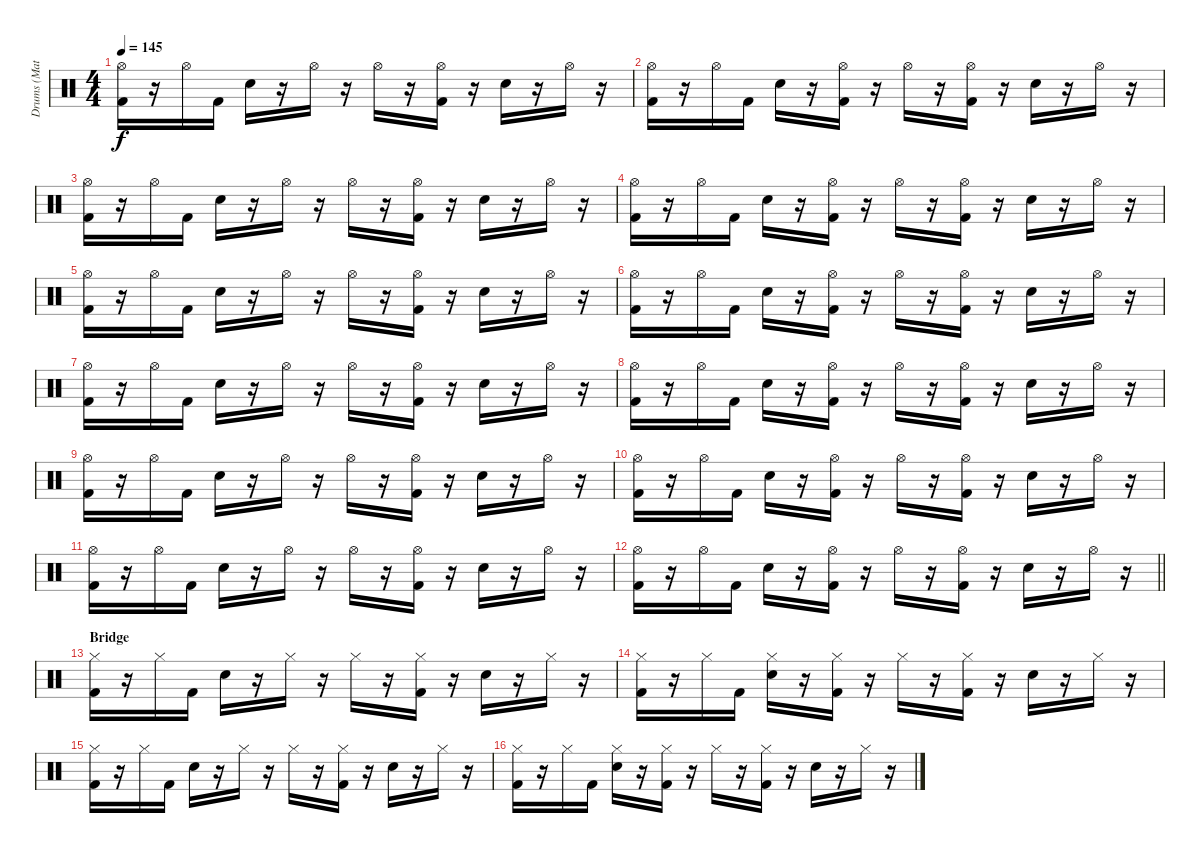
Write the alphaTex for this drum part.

\track ("Drums (Matt)" "Drums (Mat") {instrument percussion}
\staff {score}
\articulation defaults
\ts (4 4)
\tempo 145
\clef neutral
\ks c
("Hi-Hat (open)" "Kick (hit) 2").16{dy f} r.16 "Hi-Hat (open)".16 "Kick (hit) 2".16 "Electric Snare (hit)".16 r.16 "Hi-Hat (open)".16 r.16 "Hi-Hat (open)".16 r.16 ("Hi-Hat (open)" "Kick (hit) 2").16 r.16 "Electric Snare (hit)".16 r.16 "Hi-Hat (open)".16 r.16 |
("Hi-Hat (open)" "Kick (hit) 2").16 r.16 "Hi-Hat (open)".16 "Kick (hit) 2".16 "Electric Snare (hit)".16 r.16 ("Hi-Hat (open)" "Kick (hit) 2").16 r.16 "Hi-Hat (open)".16 r.16 ("Hi-Hat (open)" "Kick (hit) 2").16 r.16 "Electric Snare (hit)".16 r.16 "Hi-Hat (open)".16 r.16 |
("Hi-Hat (open)" "Kick (hit) 2").16 r.16 "Hi-Hat (open)".16 "Kick (hit) 2".16 "Electric Snare (hit)".16 r.16 "Hi-Hat (open)".16 r.16 "Hi-Hat (open)".16 r.16 ("Hi-Hat (open)" "Kick (hit) 2").16 r.16 "Electric Snare (hit)".16 r.16 "Hi-Hat (open)".16 r.16 |
("Hi-Hat (open)" "Kick (hit) 2").16 r.16 "Hi-Hat (open)".16 "Kick (hit) 2".16 "Electric Snare (hit)".16 r.16 ("Hi-Hat (open)" "Kick (hit) 2").16 r.16 "Hi-Hat (open)".16 r.16 ("Hi-Hat (open)" "Kick (hit) 2").16 r.16 "Electric Snare (hit)".16 r.16 "Hi-Hat (open)".16 r.16 |
("Hi-Hat (open)" "Kick (hit) 2").16 r.16 "Hi-Hat (open)".16 "Kick (hit) 2".16 "Electric Snare (hit)".16 r.16 "Hi-Hat (open)".16 r.16 "Hi-Hat (open)".16 r.16 ("Hi-Hat (open)" "Kick (hit) 2").16 r.16 "Electric Snare (hit)".16 r.16 "Hi-Hat (open)".16 r.16 |
("Hi-Hat (open)" "Kick (hit) 2").16 r.16 "Hi-Hat (open)".16 "Kick (hit) 2".16 "Electric Snare (hit)".16 r.16 ("Hi-Hat (open)" "Kick (hit) 2").16 r.16 "Hi-Hat (open)".16 r.16 ("Hi-Hat (open)" "Kick (hit) 2").16 r.16 "Electric Snare (hit)".16 r.16 "Hi-Hat (open)".16 r.16 |
("Hi-Hat (open)" "Kick (hit) 2").16 r.16 "Hi-Hat (open)".16 "Kick (hit) 2".16 "Electric Snare (hit)".16 r.16 "Hi-Hat (open)".16 r.16 "Hi-Hat (open)".16 r.16 ("Hi-Hat (open)" "Kick (hit) 2").16 r.16 "Electric Snare (hit)".16 r.16 "Hi-Hat (open)".16 r.16 |
("Hi-Hat (open)" "Kick (hit) 2").16 r.16 "Hi-Hat (open)".16 "Kick (hit) 2".16 "Electric Snare (hit)".16 r.16 ("Hi-Hat (open)" "Kick (hit) 2").16 r.16 "Hi-Hat (open)".16 r.16 ("Hi-Hat (open)" "Kick (hit) 2").16 r.16 "Electric Snare (hit)".16 r.16 "Hi-Hat (open)".16 r.16 |
("Hi-Hat (open)" "Kick (hit) 2").16 r.16 "Hi-Hat (open)".16 "Kick (hit) 2".16 "Electric Snare (hit)".16 r.16 "Hi-Hat (open)".16 r.16 "Hi-Hat (open)".16 r.16 ("Hi-Hat (open)" "Kick (hit) 2").16 r.16 "Electric Snare (hit)".16 r.16 "Hi-Hat (open)".16 r.16 |
("Hi-Hat (open)" "Kick (hit) 2").16 r.16 "Hi-Hat (open)".16 "Kick (hit) 2".16 "Electric Snare (hit)".16 r.16 ("Hi-Hat (open)" "Kick (hit) 2").16 r.16 "Hi-Hat (open)".16 r.16 ("Hi-Hat (open)" "Kick (hit) 2").16 r.16 "Electric Snare (hit)".16 r.16 "Hi-Hat (open)".16 r.16 |
("Hi-Hat (open)" "Kick (hit) 2").16 r.16 "Hi-Hat (open)".16 "Kick (hit) 2".16 "Electric Snare (hit)".16 r.16 "Hi-Hat (open)".16 r.16 "Hi-Hat (open)".16 r.16 ("Hi-Hat (open)" "Kick (hit) 2").16 r.16 "Electric Snare (hit)".16 r.16 "Hi-Hat (open)".16 r.16 |
\barLineRight lightlight
("Hi-Hat (open)" "Kick (hit) 2").16 r.16 "Hi-Hat (open)".16 "Kick (hit) 2".16 "Electric Snare (hit)".16 r.16 ("Hi-Hat (open)" "Kick (hit) 2").16 r.16 "Hi-Hat (open)".16 r.16 ("Hi-Hat (open)" "Kick (hit) 2").16 r.16 "Electric Snare (hit)".16 r.16 "Hi-Hat (open)".16 r.16 |
\section ("" "Bridge")
("Hi-Hat (closed)" "Kick (hit) 2").16 r.16 "Hi-Hat (closed)".16 "Kick (hit) 2".16 "Electric Snare (hit)".16 r.16 "Hi-Hat (closed)".16 r.16 "Hi-Hat (closed)".16 r.16 ("Hi-Hat (closed)" "Kick (hit) 2").16 r.16 "Electric Snare (hit)".16 r.16 "Hi-Hat (closed)".16 r.16 |
("Hi-Hat (closed)" "Kick (hit) 2").16 r.16 "Hi-Hat (closed)".16 "Kick (hit) 2".16 ("Hi-Hat (closed)" "Electric Snare (hit)").16 r.16 ("Hi-Hat (closed)" "Kick (hit) 2").16 r.16 "Hi-Hat (closed)".16 r.16 ("Hi-Hat (closed)" "Kick (hit) 2").16 r.16 "Electric Snare (hit)".16 r.16 "Hi-Hat (closed)".16 r.16 |
("Hi-Hat (closed)" "Kick (hit) 2").16 r.16 "Hi-Hat (closed)".16 "Kick (hit) 2".16 "Electric Snare (hit)".16 r.16 "Hi-Hat (closed)".16 r.16 "Hi-Hat (closed)".16 r.16 ("Hi-Hat (closed)" "Kick (hit) 2").16 r.16 "Electric Snare (hit)".16 r.16 "Hi-Hat (closed)".16 r.16 |
("Hi-Hat (closed)" "Kick (hit) 2").16 r.16 "Hi-Hat (closed)".16 "Kick (hit) 2".16 ("Hi-Hat (closed)" "Electric Snare (hit)").16 r.16 ("Hi-Hat (closed)" "Kick (hit) 2").16 r.16 "Hi-Hat (closed)".16 r.16 ("Hi-Hat (closed)" "Kick (hit) 2").16 r.16 "Electric Snare (hit)".16 r.16 "Hi-Hat (closed)".16 r.16
